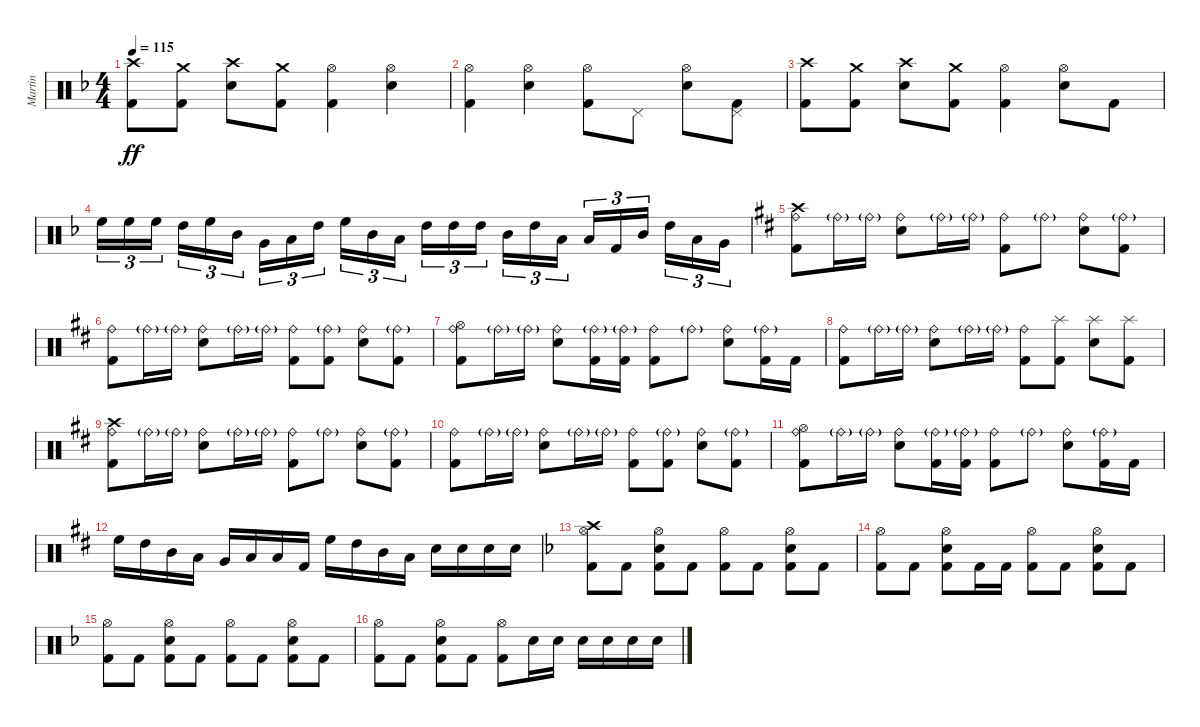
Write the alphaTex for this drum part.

\track ("Martin" "Martin") {instrument percussion}
\staff {score}
\articulation defaults
\ts (4 4)
\tempo 115
\clef neutral
\ks dminor
("Crash high (hit)" "Kick (hit) 2").8{dy ff} ("Crash medium (hit)" "Kick (hit) 2").8 ("Crash high (hit)" "Electric Snare (hit)").8 ("Crash medium (hit)" "Kick (hit) 2").8 ("Hi-Hat (open)" "Kick (hit) 2").4 ("Hi-Hat (open)" "Electric Snare (hit)").4 |
("Hi-Hat (open)" "Kick (hit) 2").4 ("Hi-Hat (open)" "Electric Snare (hit)").4 ("Hi-Hat (open)" "Kick (hit) 2").8 "Pedal Hi-Hat (hit)".8 ("Hi-Hat (open)" "Electric Snare (hit)").8 ("Pedal Hi-Hat (hit)" "Kick (hit) 2").8 |
("Crash high (hit)" "Kick (hit) 2").8 ("Crash medium (hit)" "Kick (hit) 2").8 ("Crash high (hit)" "Electric Snare (hit)").8 ("Crash medium (hit)" "Kick (hit) 2").8 ("Hi-Hat (open)" "Kick (hit) 2").4 ("Hi-Hat (open)" "Electric Snare (hit)").8 "Kick (hit) 2".8 |
"High Floor Tom (hit)".16{tu (3 2)} "High Floor Tom (hit)".16{tu (3 2)} "High Floor Tom (hit)".16{tu (3 2) beam splitsecondary} "High Tom (hit)".16{tu (3 2)} "High Floor Tom (hit)".16{tu (3 2)} "Mid Tom (hit)".16{tu (3 2)} "Very Low Tom (hit)".16{tu (3 2)} "Low Floor Tom (hit)".16{tu (3 2)} "High Tom (hit)".16{tu (3 2) beam splitsecondary} "High Floor Tom (hit)".16{tu (3 2)} "Mid Tom (hit)".16{tu (3 2)} "Low Tom (hit)".16{tu (3 2)} "High Tom (hit)".16{tu (3 2)} "High Tom (hit)".16{tu (3 2)} "High Tom (hit)".16{tu (3 2) beam splitsecondary} "Mid Tom (hit)".16{tu (3 2)} "High Tom (hit)".16{tu (3 2)} "Low Tom (hit)".16{tu (3 2)} "Low Floor Tom (hit)".16{tu (3 2)} "Kick (hit) 2".16{tu (3 2)} "Mid Tom (hit)".16{tu (3 2) beam splitsecondary} "High Tom (hit)".16{tu (3 2)} "Low Tom (hit)".16{tu (3 2)} "Very Low Tom (hit)".16{tu (3 2)} |
\ks bminor
("Crash high (hit)" "Ride (bell)" "Kick (hit) 2").8 "Ride (bell)"{g}.16 "Ride (bell)"{g}.16 ("Ride (bell)" "Electric Snare (hit)").8 "Ride (bell)"{g}.16 "Ride (bell)"{g}.16 ("Ride (bell)" "Kick (hit) 2").8 "Ride (bell)"{g}.8 ("Ride (bell)" "Electric Snare (hit)").8 ("Ride (bell)"{g} "Kick (hit) 2").8 |
("Ride (bell)" "Kick (hit) 2").8 "Ride (bell)"{g}.16 "Ride (bell)"{g}.16 ("Ride (bell)" "Electric Snare (hit)").8 "Ride (bell)"{g}.16 "Ride (bell)"{g}.16 ("Ride (bell)" "Kick (hit) 2").8 ("Ride (bell)"{g} "Kick (hit) 2").8 ("Ride (bell)" "Electric Snare (hit)").8 ("Ride (bell)"{g} "Kick (hit) 2").8 |
("Hi-Hat (open)" "Ride (bell)" "Kick (hit) 2").8 "Ride (bell)"{g}.16 "Ride (bell)"{g}.16 ("Ride (bell)" "Electric Snare (hit)").8 ("Ride (bell)"{g} "Kick (hit) 2").16 ("Ride (bell)"{g} "Kick (hit) 2").16 ("Ride (bell)" "Kick (hit) 2").8 "Ride (bell)"{g}.8 ("Ride (bell)" "Electric Snare (hit)").8 ("Ride (bell)"{g} "Kick (hit) 2").16 "Kick (hit) 2".16 |
("Ride (bell)" "Kick (hit) 2").8 "Ride (bell)"{g}.16 "Ride (bell)"{g}.16 ("Ride (bell)" "Electric Snare (hit)").8 "Ride (bell)"{g}.16 "Ride (bell)"{g}.16 ("Ride (bell)" "Kick (hit) 2").8 ("Splash (hit)" "Kick (hit) 2").8 ("Splash (hit)" "Electric Snare (hit)").8 ("Splash (hit)" "Kick (hit) 2").8 |
("Crash high (hit)" "Ride (bell)" "Kick (hit) 2").8 "Ride (bell)"{g}.16 "Ride (bell)"{g}.16 ("Ride (bell)" "Electric Snare (hit)").8 "Ride (bell)"{g}.16 "Ride (bell)"{g}.16 ("Ride (bell)" "Kick (hit) 2").8 "Ride (bell)"{g}.8 ("Ride (bell)" "Electric Snare (hit)").8 ("Ride (bell)"{g} "Kick (hit) 2").8 |
("Ride (bell)" "Kick (hit) 2").8 "Ride (bell)"{g}.16 "Ride (bell)"{g}.16 ("Ride (bell)" "Electric Snare (hit)").8 "Ride (bell)"{g}.16 "Ride (bell)"{g}.16 ("Ride (bell)" "Kick (hit) 2").8 ("Ride (bell)"{g} "Kick (hit) 2").8 ("Ride (bell)" "Electric Snare (hit)").8 ("Ride (bell)"{g} "Kick (hit) 2").8 |
("Hi-Hat (open)" "Ride (bell)" "Kick (hit) 2").8 "Ride (bell)"{g}.16 "Ride (bell)"{g}.16 ("Ride (bell)" "Electric Snare (hit)").8 ("Ride (bell)"{g} "Kick (hit) 2").16 ("Ride (bell)"{g} "Kick (hit) 2").16 ("Ride (bell)" "Kick (hit) 2").8 "Ride (bell)"{g}.8 ("Ride (bell)" "Electric Snare (hit)").8 ("Ride (bell)"{g} "Kick (hit) 2").16 "Kick (hit) 2".16 |
"High Floor Tom (hit)".16 "High Tom (hit)".16 "Mid Tom (hit)".16 "Low Tom (hit)".16 "Very Low Tom (hit)".16 "Low Floor Tom (hit)".16 "Low Floor Tom (hit)".16 "Kick (hit) 2".16 "High Floor Tom (hit)".16 "High Tom (hit)".16 "Mid Tom (hit)".16 "Low Tom (hit)".16 "Electric Snare (hit)".16 "Electric Snare (hit)".16 "Electric Snare (hit)".16 "Electric Snare (hit)".16 |
\ks dminor
("Crash high (hit)" "Hi-Hat (open)" "Kick (hit) 2").8 "Kick (hit) 2".8 ("Hi-Hat (open)" "Electric Snare (hit)" "Kick (hit) 2").8 "Kick (hit) 2".8 ("Hi-Hat (open)" "Kick (hit) 2").8 "Kick (hit) 2".8 ("Hi-Hat (open)" "Electric Snare (hit)" "Kick (hit) 2").8 "Kick (hit) 2".8 |
("Hi-Hat (open)" "Kick (hit) 2").8 "Kick (hit) 2".8 ("Hi-Hat (open)" "Electric Snare (hit)" "Kick (hit) 2").8 "Kick (hit) 2".16 "Kick (hit) 2".16 ("Hi-Hat (open)" "Kick (hit) 2").8 "Kick (hit) 2".8 ("Hi-Hat (open)" "Electric Snare (hit)" "Kick (hit) 2").8 "Kick (hit) 2".8 |
("Hi-Hat (open)" "Kick (hit) 2").8 "Kick (hit) 2".8 ("Hi-Hat (open)" "Electric Snare (hit)" "Kick (hit) 2").8 "Kick (hit) 2".8 ("Hi-Hat (open)" "Kick (hit) 2").8 "Kick (hit) 2".8 ("Hi-Hat (open)" "Electric Snare (hit)" "Kick (hit) 2").8 "Kick (hit) 2".8 |
("Hi-Hat (open)" "Kick (hit) 2").8 "Kick (hit) 2".8 ("Hi-Hat (open)" "Electric Snare (hit)" "Kick (hit) 2").8 "Kick (hit) 2".8 ("Hi-Hat (open)" "Kick (hit) 2").8 "Electric Snare (hit)".16 "Electric Snare (hit)".16 "Electric Snare (hit)".16 "Electric Snare (hit)".16 "Electric Snare (hit)".16 "Electric Snare (hit)".16
